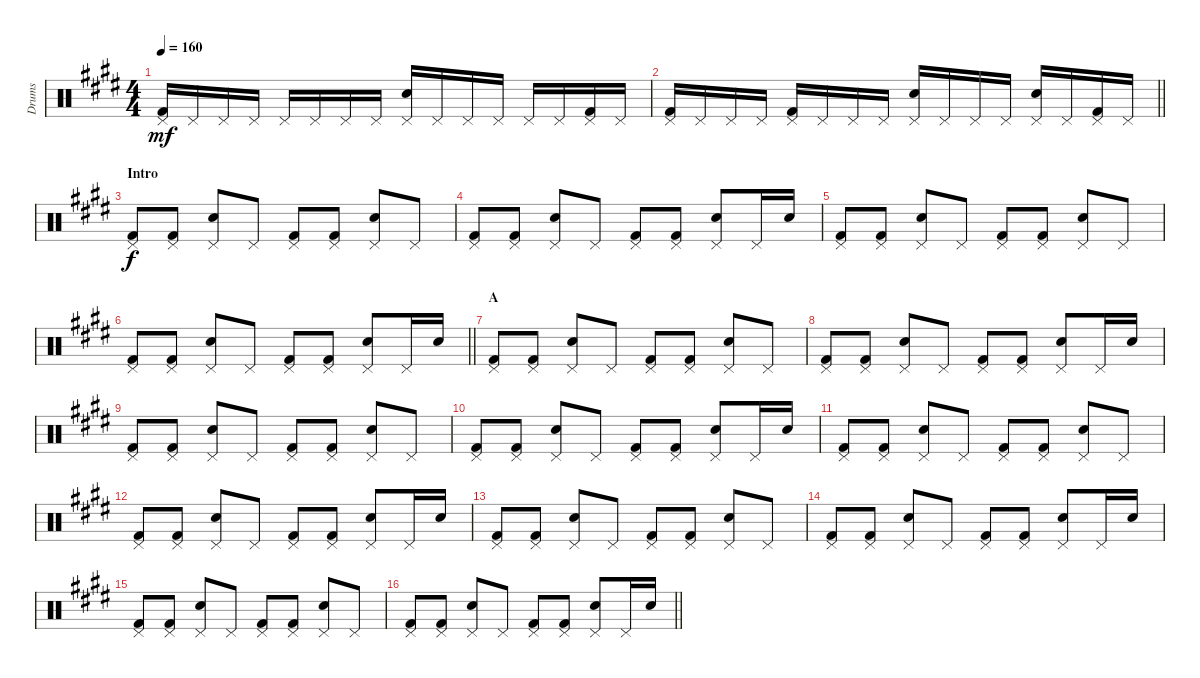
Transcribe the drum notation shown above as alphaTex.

\track ("Drums" "Drums") {instrument percussion}
\staff {score}
\articulation defaults
\ts (4 4)
\tempo 160
\clef neutral
\ks e
("Pedal Hi-Hat (hit)" "Kick (hit) 2").16{dy mf} "Pedal Hi-Hat (hit)".16 "Pedal Hi-Hat (hit)".16 "Pedal Hi-Hat (hit)".16 "Pedal Hi-Hat (hit)".16 "Pedal Hi-Hat (hit)".16 "Pedal Hi-Hat (hit)".16 "Pedal Hi-Hat (hit)".16 ("Pedal Hi-Hat (hit)" "Snare (hit) 2").16 "Pedal Hi-Hat (hit)".16 "Pedal Hi-Hat (hit)".16 "Pedal Hi-Hat (hit)".16 "Pedal Hi-Hat (hit)".16 "Pedal Hi-Hat (hit)".16 ("Pedal Hi-Hat (hit)" "Kick (hit) 2").16 "Pedal Hi-Hat (hit)".16 |
\barLineRight lightlight
("Pedal Hi-Hat (hit)" "Kick (hit) 2").16 "Pedal Hi-Hat (hit)".16 "Pedal Hi-Hat (hit)".16 "Pedal Hi-Hat (hit)".16 ("Pedal Hi-Hat (hit)" "Kick (hit) 2").16 "Pedal Hi-Hat (hit)".16 "Pedal Hi-Hat (hit)".16 "Pedal Hi-Hat (hit)".16 ("Pedal Hi-Hat (hit)" "Snare (hit) 2").16 "Pedal Hi-Hat (hit)".16 "Pedal Hi-Hat (hit)".16 "Pedal Hi-Hat (hit)".16 ("Pedal Hi-Hat (hit)" "Snare (hit) 2").16 "Pedal Hi-Hat (hit)".16 ("Pedal Hi-Hat (hit)" "Kick (hit) 2").16 "Pedal Hi-Hat (hit)".16 |
\section ("" "Intro")
("Pedal Hi-Hat (hit)" "Kick (hit) 2").8{dy f} ("Pedal Hi-Hat (hit)" "Kick (hit) 2").8 ("Pedal Hi-Hat (hit)" "Snare (hit) 2").8 "Pedal Hi-Hat (hit)".8 ("Pedal Hi-Hat (hit)" "Kick (hit) 2").8 ("Pedal Hi-Hat (hit)" "Kick (hit) 2").8 ("Pedal Hi-Hat (hit)" "Snare (hit) 2").8 "Pedal Hi-Hat (hit)".8 |
("Pedal Hi-Hat (hit)" "Kick (hit) 2").8 ("Pedal Hi-Hat (hit)" "Kick (hit) 2").8 ("Pedal Hi-Hat (hit)" "Snare (hit) 2").8 "Pedal Hi-Hat (hit)".8 ("Pedal Hi-Hat (hit)" "Kick (hit) 2").8 ("Pedal Hi-Hat (hit)" "Kick (hit) 2").8 ("Pedal Hi-Hat (hit)" "Snare (hit) 2").8 "Pedal Hi-Hat (hit)".16 "Snare (hit) 2".16 |
("Pedal Hi-Hat (hit)" "Kick (hit) 2").8 ("Pedal Hi-Hat (hit)" "Kick (hit) 2").8 ("Pedal Hi-Hat (hit)" "Snare (hit) 2").8 "Pedal Hi-Hat (hit)".8 ("Pedal Hi-Hat (hit)" "Kick (hit) 2").8 ("Pedal Hi-Hat (hit)" "Kick (hit) 2").8 ("Pedal Hi-Hat (hit)" "Snare (hit) 2").8 "Pedal Hi-Hat (hit)".8 |
\barLineRight lightlight
("Pedal Hi-Hat (hit)" "Kick (hit) 2").8 ("Pedal Hi-Hat (hit)" "Kick (hit) 2").8 ("Pedal Hi-Hat (hit)" "Snare (hit) 2").8 "Pedal Hi-Hat (hit)".8 ("Pedal Hi-Hat (hit)" "Kick (hit) 2").8 ("Pedal Hi-Hat (hit)" "Kick (hit) 2").8 ("Pedal Hi-Hat (hit)" "Snare (hit) 2").8 "Pedal Hi-Hat (hit)".16 "Snare (hit) 2".16 |
\section ("" "A")
("Pedal Hi-Hat (hit)" "Kick (hit) 2").8 ("Pedal Hi-Hat (hit)" "Kick (hit) 2").8 ("Pedal Hi-Hat (hit)" "Snare (hit) 2").8 "Pedal Hi-Hat (hit)".8 ("Pedal Hi-Hat (hit)" "Kick (hit) 2").8 ("Pedal Hi-Hat (hit)" "Kick (hit) 2").8 ("Pedal Hi-Hat (hit)" "Snare (hit) 2").8 "Pedal Hi-Hat (hit)".8 |
("Pedal Hi-Hat (hit)" "Kick (hit) 2").8 ("Pedal Hi-Hat (hit)" "Kick (hit) 2").8 ("Pedal Hi-Hat (hit)" "Snare (hit) 2").8 "Pedal Hi-Hat (hit)".8 ("Pedal Hi-Hat (hit)" "Kick (hit) 2").8 ("Pedal Hi-Hat (hit)" "Kick (hit) 2").8 ("Pedal Hi-Hat (hit)" "Snare (hit) 2").8 "Pedal Hi-Hat (hit)".16 "Snare (hit) 2".16 |
("Pedal Hi-Hat (hit)" "Kick (hit) 2").8 ("Pedal Hi-Hat (hit)" "Kick (hit) 2").8 ("Pedal Hi-Hat (hit)" "Snare (hit) 2").8 "Pedal Hi-Hat (hit)".8 ("Pedal Hi-Hat (hit)" "Kick (hit) 2").8 ("Pedal Hi-Hat (hit)" "Kick (hit) 2").8 ("Pedal Hi-Hat (hit)" "Snare (hit) 2").8 "Pedal Hi-Hat (hit)".8 |
("Pedal Hi-Hat (hit)" "Kick (hit) 2").8 ("Pedal Hi-Hat (hit)" "Kick (hit) 2").8 ("Pedal Hi-Hat (hit)" "Snare (hit) 2").8 "Pedal Hi-Hat (hit)".8 ("Pedal Hi-Hat (hit)" "Kick (hit) 2").8 ("Pedal Hi-Hat (hit)" "Kick (hit) 2").8 ("Pedal Hi-Hat (hit)" "Snare (hit) 2").8 "Pedal Hi-Hat (hit)".16 "Snare (hit) 2".16 |
("Pedal Hi-Hat (hit)" "Kick (hit) 2").8 ("Pedal Hi-Hat (hit)" "Kick (hit) 2").8 ("Pedal Hi-Hat (hit)" "Snare (hit) 2").8 "Pedal Hi-Hat (hit)".8 ("Pedal Hi-Hat (hit)" "Kick (hit) 2").8 ("Pedal Hi-Hat (hit)" "Kick (hit) 2").8 ("Pedal Hi-Hat (hit)" "Snare (hit) 2").8 "Pedal Hi-Hat (hit)".8 |
("Pedal Hi-Hat (hit)" "Kick (hit) 2").8 ("Pedal Hi-Hat (hit)" "Kick (hit) 2").8 ("Pedal Hi-Hat (hit)" "Snare (hit) 2").8 "Pedal Hi-Hat (hit)".8 ("Pedal Hi-Hat (hit)" "Kick (hit) 2").8 ("Pedal Hi-Hat (hit)" "Kick (hit) 2").8 ("Pedal Hi-Hat (hit)" "Snare (hit) 2").8 "Pedal Hi-Hat (hit)".16 "Snare (hit) 2".16 |
("Pedal Hi-Hat (hit)" "Kick (hit) 2").8 ("Pedal Hi-Hat (hit)" "Kick (hit) 2").8 ("Pedal Hi-Hat (hit)" "Snare (hit) 2").8 "Pedal Hi-Hat (hit)".8 ("Pedal Hi-Hat (hit)" "Kick (hit) 2").8 ("Pedal Hi-Hat (hit)" "Kick (hit) 2").8 ("Pedal Hi-Hat (hit)" "Snare (hit) 2").8 "Pedal Hi-Hat (hit)".8 |
("Pedal Hi-Hat (hit)" "Kick (hit) 2").8 ("Pedal Hi-Hat (hit)" "Kick (hit) 2").8 ("Pedal Hi-Hat (hit)" "Snare (hit) 2").8 "Pedal Hi-Hat (hit)".8 ("Pedal Hi-Hat (hit)" "Kick (hit) 2").8 ("Pedal Hi-Hat (hit)" "Kick (hit) 2").8 ("Pedal Hi-Hat (hit)" "Snare (hit) 2").8 "Pedal Hi-Hat (hit)".16 "Snare (hit) 2".16 |
("Pedal Hi-Hat (hit)" "Kick (hit) 2").8 ("Pedal Hi-Hat (hit)" "Kick (hit) 2").8 ("Pedal Hi-Hat (hit)" "Snare (hit) 2").8 "Pedal Hi-Hat (hit)".8 ("Pedal Hi-Hat (hit)" "Kick (hit) 2").8 ("Pedal Hi-Hat (hit)" "Kick (hit) 2").8 ("Pedal Hi-Hat (hit)" "Snare (hit) 2").8 "Pedal Hi-Hat (hit)".8 |
\barLineRight lightlight
("Pedal Hi-Hat (hit)" "Kick (hit) 2").8 ("Pedal Hi-Hat (hit)" "Kick (hit) 2").8 ("Pedal Hi-Hat (hit)" "Snare (hit) 2").8 "Pedal Hi-Hat (hit)".8 ("Pedal Hi-Hat (hit)" "Kick (hit) 2").8 ("Pedal Hi-Hat (hit)" "Kick (hit) 2").8 ("Pedal Hi-Hat (hit)" "Snare (hit) 2").8 "Pedal Hi-Hat (hit)".16 "Snare (hit) 2".16
